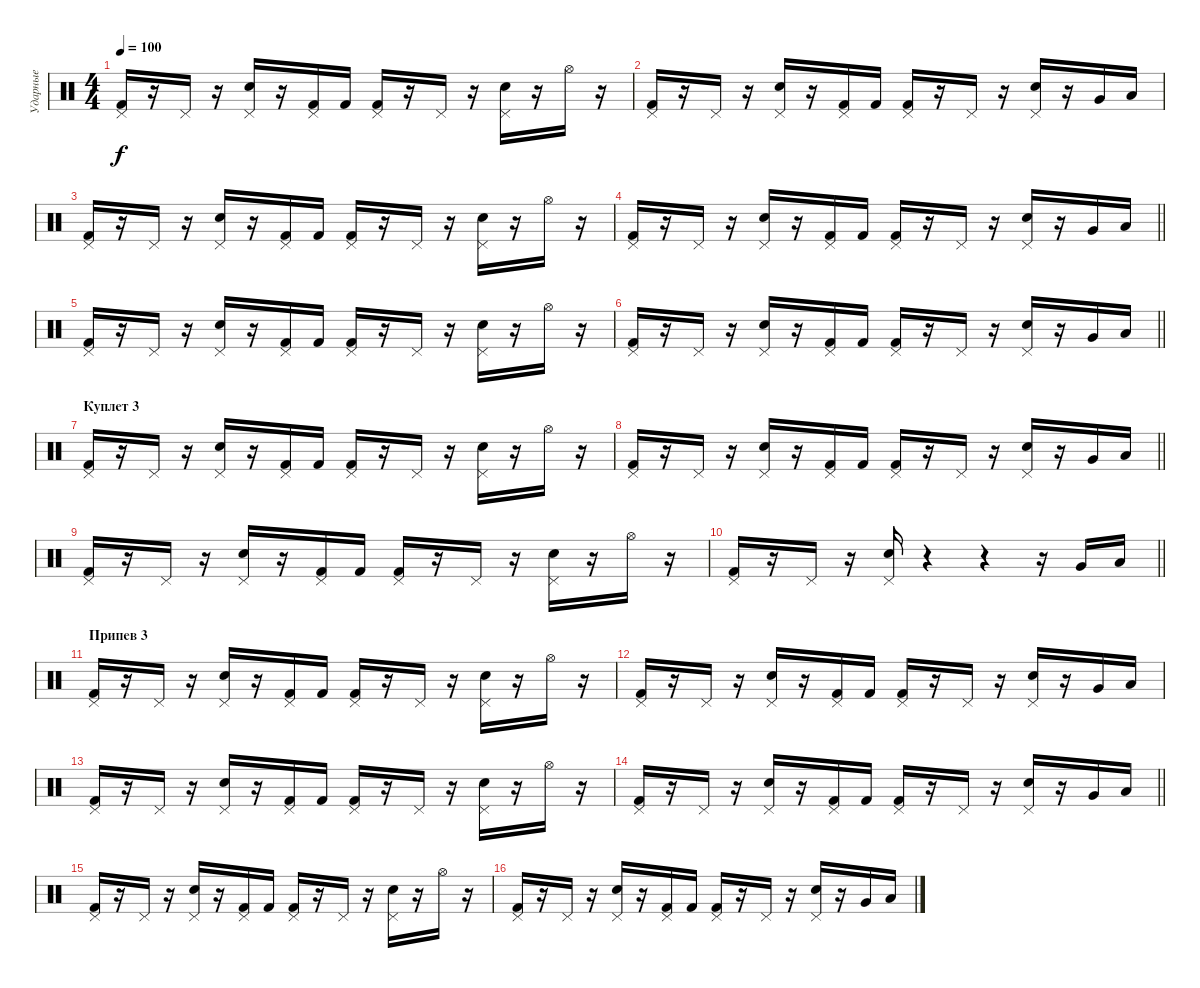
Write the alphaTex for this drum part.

\track ("Ударные" "Ударные") {instrument percussion}
\staff {score}
\articulation defaults
\ts (4 4)
\tempo 100
\clef neutral
\ks c
("Pedal Hi-Hat (hit)" "Kick (hit) 2").16{dy f} r.16 "Pedal Hi-Hat (hit)".16 r.16 ("Pedal Hi-Hat (hit)" "Snare (hit) 2").16 r.16 ("Pedal Hi-Hat (hit)" "Kick (hit) 2").16 "Kick (hit) 2".16 ("Pedal Hi-Hat (hit)" "Kick (hit) 2").16 r.16 "Pedal Hi-Hat (hit)".16 r.16 ("Pedal Hi-Hat (hit)" "Snare (hit) 2").16 r.16 "Hi-Hat (open)".16 r.16 |
("Pedal Hi-Hat (hit)" "Kick (hit) 2").16 r.16 "Pedal Hi-Hat (hit)".16 r.16 ("Pedal Hi-Hat (hit)" "Snare (hit) 2").16 r.16 ("Pedal Hi-Hat (hit)" "Kick (hit) 2").16 "Kick (hit) 2".16 ("Pedal Hi-Hat (hit)" "Kick (hit) 2").16 r.16 "Pedal Hi-Hat (hit)".16 r.16 ("Pedal Hi-Hat (hit)" "Snare (hit) 2").16 r.16 "Very Low Tom (hit)".16 "Low Floor Tom (hit)".16 |
("Pedal Hi-Hat (hit)" "Kick (hit) 2").16 r.16 "Pedal Hi-Hat (hit)".16 r.16 ("Pedal Hi-Hat (hit)" "Snare (hit) 2").16 r.16 ("Pedal Hi-Hat (hit)" "Kick (hit) 2").16 "Kick (hit) 2".16 ("Pedal Hi-Hat (hit)" "Kick (hit) 2").16 r.16 "Pedal Hi-Hat (hit)".16 r.16 ("Pedal Hi-Hat (hit)" "Snare (hit) 2").16 r.16 "Hi-Hat (open)".16 r.16 |
\barLineRight lightlight
("Pedal Hi-Hat (hit)" "Kick (hit) 2").16 r.16 "Pedal Hi-Hat (hit)".16 r.16 ("Pedal Hi-Hat (hit)" "Snare (hit) 2").16 r.16 ("Pedal Hi-Hat (hit)" "Kick (hit) 2").16 "Kick (hit) 2".16 ("Pedal Hi-Hat (hit)" "Kick (hit) 2").16 r.16 "Pedal Hi-Hat (hit)".16 r.16 ("Pedal Hi-Hat (hit)" "Snare (hit) 2").16 r.16 "Very Low Tom (hit)".16 "Low Floor Tom (hit)".16 |
("Pedal Hi-Hat (hit)" "Kick (hit) 2").16 r.16 "Pedal Hi-Hat (hit)".16 r.16 ("Pedal Hi-Hat (hit)" "Snare (hit) 2").16 r.16 ("Pedal Hi-Hat (hit)" "Kick (hit) 2").16 "Kick (hit) 2".16 ("Pedal Hi-Hat (hit)" "Kick (hit) 2").16 r.16 "Pedal Hi-Hat (hit)".16 r.16 ("Pedal Hi-Hat (hit)" "Snare (hit) 2").16 r.16 "Hi-Hat (open)".16 r.16 |
\barLineRight lightlight
("Pedal Hi-Hat (hit)" "Kick (hit) 2").16 r.16 "Pedal Hi-Hat (hit)".16 r.16 ("Pedal Hi-Hat (hit)" "Snare (hit) 2").16 r.16 ("Pedal Hi-Hat (hit)" "Kick (hit) 2").16 "Kick (hit) 2".16 ("Pedal Hi-Hat (hit)" "Kick (hit) 2").16 r.16 "Pedal Hi-Hat (hit)".16 r.16 ("Pedal Hi-Hat (hit)" "Snare (hit) 2").16 r.16 "Very Low Tom (hit)".16 "Low Floor Tom (hit)".16 |
\section ("" "Куплет 3")
("Pedal Hi-Hat (hit)" "Kick (hit) 2").16 r.16 "Pedal Hi-Hat (hit)".16 r.16 ("Pedal Hi-Hat (hit)" "Snare (hit) 2").16 r.16 ("Pedal Hi-Hat (hit)" "Kick (hit) 2").16 "Kick (hit) 2".16 ("Pedal Hi-Hat (hit)" "Kick (hit) 2").16 r.16 "Pedal Hi-Hat (hit)".16 r.16 ("Pedal Hi-Hat (hit)" "Snare (hit) 2").16 r.16 "Hi-Hat (open)".16 r.16 |
\barLineRight lightlight
("Pedal Hi-Hat (hit)" "Kick (hit) 2").16 r.16 "Pedal Hi-Hat (hit)".16 r.16 ("Pedal Hi-Hat (hit)" "Snare (hit) 2").16 r.16 ("Pedal Hi-Hat (hit)" "Kick (hit) 2").16 "Kick (hit) 2".16 ("Pedal Hi-Hat (hit)" "Kick (hit) 2").16 r.16 "Pedal Hi-Hat (hit)".16 r.16 ("Pedal Hi-Hat (hit)" "Snare (hit) 2").16 r.16 "Very Low Tom (hit)".16 "Low Floor Tom (hit)".16 |
("Pedal Hi-Hat (hit)" "Kick (hit) 2").16 r.16 "Pedal Hi-Hat (hit)".16 r.16 ("Pedal Hi-Hat (hit)" "Snare (hit) 2").16 r.16 ("Pedal Hi-Hat (hit)" "Kick (hit) 2").16 "Kick (hit) 2".16 ("Pedal Hi-Hat (hit)" "Kick (hit) 2").16 r.16 "Pedal Hi-Hat (hit)".16 r.16 ("Pedal Hi-Hat (hit)" "Snare (hit) 2").16 r.16 "Hi-Hat (open)".16 r.16 |
\barLineRight lightlight
("Pedal Hi-Hat (hit)" "Kick (hit) 2").16 r.16 "Pedal Hi-Hat (hit)".16 r.16 ("Pedal Hi-Hat (hit)" "Snare (hit) 2").16 r.4 r.4 r.16 "Very Low Tom (hit)".16 "Low Floor Tom (hit)".16 |
\section ("" "Припев 3")
("Pedal Hi-Hat (hit)" "Kick (hit) 2").16 r.16 "Pedal Hi-Hat (hit)".16 r.16 ("Pedal Hi-Hat (hit)" "Snare (hit) 2").16 r.16 ("Pedal Hi-Hat (hit)" "Kick (hit) 2").16 "Kick (hit) 2".16 ("Pedal Hi-Hat (hit)" "Kick (hit) 2").16 r.16 "Pedal Hi-Hat (hit)".16 r.16 ("Pedal Hi-Hat (hit)" "Snare (hit) 2").16 r.16 "Hi-Hat (open)".16 r.16 |
("Pedal Hi-Hat (hit)" "Kick (hit) 2").16 r.16 "Pedal Hi-Hat (hit)".16 r.16 ("Pedal Hi-Hat (hit)" "Snare (hit) 2").16 r.16 ("Pedal Hi-Hat (hit)" "Kick (hit) 2").16 "Kick (hit) 2".16 ("Pedal Hi-Hat (hit)" "Kick (hit) 2").16 r.16 "Pedal Hi-Hat (hit)".16 r.16 ("Pedal Hi-Hat (hit)" "Snare (hit) 2").16 r.16 "Very Low Tom (hit)".16 "Low Floor Tom (hit)".16 |
("Pedal Hi-Hat (hit)" "Kick (hit) 2").16 r.16 "Pedal Hi-Hat (hit)".16 r.16 ("Pedal Hi-Hat (hit)" "Snare (hit) 2").16 r.16 ("Pedal Hi-Hat (hit)" "Kick (hit) 2").16 "Kick (hit) 2".16 ("Pedal Hi-Hat (hit)" "Kick (hit) 2").16 r.16 "Pedal Hi-Hat (hit)".16 r.16 ("Pedal Hi-Hat (hit)" "Snare (hit) 2").16 r.16 "Hi-Hat (open)".16 r.16 |
\barLineRight lightlight
("Pedal Hi-Hat (hit)" "Kick (hit) 2").16 r.16 "Pedal Hi-Hat (hit)".16 r.16 ("Pedal Hi-Hat (hit)" "Snare (hit) 2").16 r.16 ("Pedal Hi-Hat (hit)" "Kick (hit) 2").16 "Kick (hit) 2".16 ("Pedal Hi-Hat (hit)" "Kick (hit) 2").16 r.16 "Pedal Hi-Hat (hit)".16 r.16 ("Pedal Hi-Hat (hit)" "Snare (hit) 2").16 r.16 "Very Low Tom (hit)".16 "Low Floor Tom (hit)".16 |
("Pedal Hi-Hat (hit)" "Kick (hit) 2").16 r.16 "Pedal Hi-Hat (hit)".16 r.16 ("Pedal Hi-Hat (hit)" "Snare (hit) 2").16 r.16 ("Pedal Hi-Hat (hit)" "Kick (hit) 2").16 "Kick (hit) 2".16 ("Pedal Hi-Hat (hit)" "Kick (hit) 2").16 r.16 "Pedal Hi-Hat (hit)".16 r.16 ("Pedal Hi-Hat (hit)" "Snare (hit) 2").16 r.16 "Hi-Hat (open)".16 r.16 |
("Pedal Hi-Hat (hit)" "Kick (hit) 2").16 r.16 "Pedal Hi-Hat (hit)".16 r.16 ("Pedal Hi-Hat (hit)" "Snare (hit) 2").16 r.16 ("Pedal Hi-Hat (hit)" "Kick (hit) 2").16 "Kick (hit) 2".16 ("Pedal Hi-Hat (hit)" "Kick (hit) 2").16 r.16 "Pedal Hi-Hat (hit)".16 r.16 ("Pedal Hi-Hat (hit)" "Snare (hit) 2").16 r.16 "Very Low Tom (hit)".16 "Low Floor Tom (hit)".16
